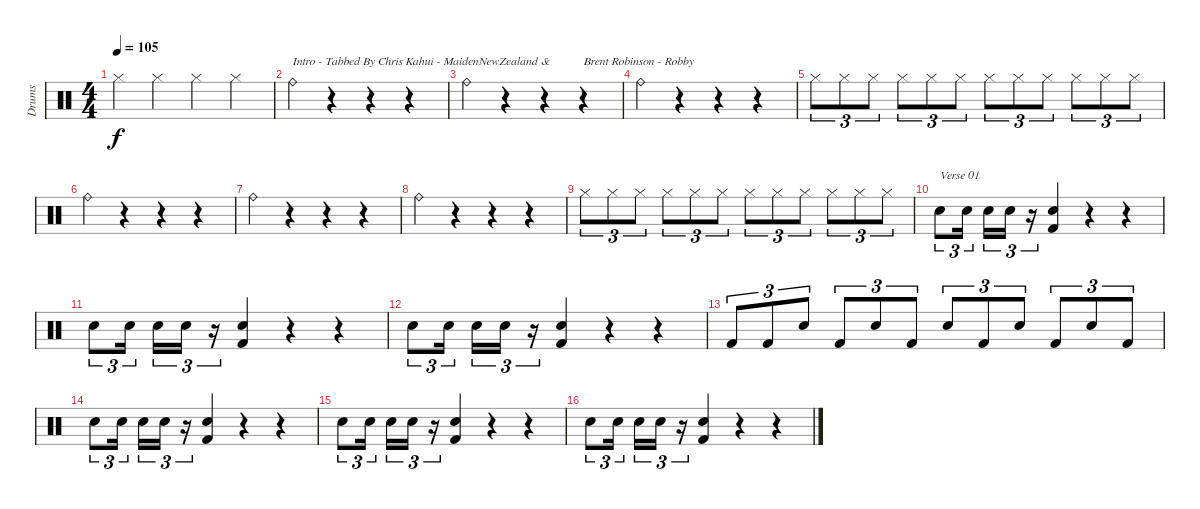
\track ("Drums" "Drums") {instrument percussion}
\staff {score}
\articulation defaults
\ts (4 4)
\tempo 105
\clef neutral
\ks c "Hi-Hat (closed)".4{dy f} "Hi-Hat (closed)".4 "Hi-Hat (closed)".4 "Hi-Hat (closed)".4
|
"Ride (bell)".4{txt "Intro - Tabbed By Chris Kahui - MaidenNewZealand &"} r.4 r.4 r.4 |
"Ride (bell)".4 r.4 r.4 r.4{txt "Brent Robinson - Robby"} |
"Ride (bell)".4 r.4 r.4 r.4 |
"Hi-Hat (closed)".8{tu (3 2)} "Hi-Hat (closed)".8{tu (3 2)} "Hi-Hat (closed)".8{tu (3 2)} "Hi-Hat (closed)".8{tu (3 2)} "Hi-Hat (closed)".8{tu (3 2)} "Hi-Hat (closed)".8{tu (3 2)} "Hi-Hat (closed)".8{tu (3 2)} "Hi-Hat (closed)".8{tu (3 2)} "Hi-Hat (closed)".8{tu (3 2)} "Hi-Hat (closed)".8{tu (3 2)} "Hi-Hat (closed)".8{tu (3 2)} "Hi-Hat (closed)".8{tu (3 2)} |
"Ride (bell)".4 r.4 r.4 r.4 |
"Ride (bell)".4 r.4 r.4 r.4 |
"Ride (bell)".4 r.4 r.4 r.4 |
"Hi-Hat (closed)".8{tu (3 2)} "Hi-Hat (closed)".8{tu (3 2)} "Hi-Hat (closed)".8{tu (3 2)} "Hi-Hat (closed)".8{tu (3 2)} "Hi-Hat (closed)".8{tu (3 2)} "Hi-Hat (closed)".8{tu (3 2)} "Hi-Hat (closed)".8{tu (3 2)} "Hi-Hat (closed)".8{tu (3 2)} "Hi-Hat (closed)".8{tu (3 2)} "Hi-Hat (closed)".8{tu (3 2)} "Hi-Hat (closed)".8{tu (3 2)} "Hi-Hat (closed)".8{tu (3 2)} |
"Snare (hit) 2".8{tu (3 2) txt "Verse 01"} "Snare (hit) 2".16{tu (3 2)} "Snare (hit) 2".16{tu (3 2)} "Snare (hit) 2".16{tu (3 2)} r.16{tu (3 2)} ("Kick (hit) 2" "Snare (hit) 2").4 r.4 r.4 |
"Snare (hit) 2".8{tu (3 2)} "Snare (hit) 2".16{tu (3 2)} "Snare (hit) 2".16{tu (3 2)} "Snare (hit) 2".16{tu (3 2)} r.16{tu (3 2)} ("Kick (hit) 2" "Snare (hit) 2").4 r.4 r.4 |
"Snare (hit) 2".8{tu (3 2)} "Snare (hit) 2".16{tu (3 2)} "Snare (hit) 2".16{tu (3 2)} "Snare (hit) 2".16{tu (3 2)} r.16{tu (3 2)} ("Kick (hit) 2" "Snare (hit) 2").4 r.4 r.4 |
"Kick (hit) 2".8{tu (3 2)} "Kick (hit) 2".8{tu (3 2)} "Snare (hit) 2".8{tu (3 2)} "Kick (hit) 2".8{tu (3 2)} "Snare (hit) 2".8{tu (3 2)} "Kick (hit) 2".8{tu (3 2)} "Snare (hit) 2".8{tu (3 2)} "Kick (hit) 2".8{tu (3 2)} "Snare (hit) 2".8{tu (3 2)} "Kick (hit) 2".8{tu (3 2)} "Snare (hit) 2".8{tu (3 2)} "Kick (hit) 2".8{tu (3 2)} |
"Snare (hit) 2".8{tu (3 2)} "Snare (hit) 2".16{tu (3 2)} "Snare (hit) 2".16{tu (3 2)} "Snare (hit) 2".16{tu (3 2)} r.16{tu (3 2)} ("Kick (hit) 2" "Snare (hit) 2").4 r.4 r.4 |
"Snare (hit) 2".8{tu (3 2)} "Snare (hit) 2".16{tu (3 2)} "Snare (hit) 2".16{tu (3 2)} "Snare (hit) 2".16{tu (3 2)} r.16{tu (3 2)} ("Kick (hit) 2" "Snare (hit) 2").4 r.4 r.4 |
"Snare (hit) 2".8{tu (3 2)} "Snare (hit) 2".16{tu (3 2)} "Snare (hit) 2".16{tu (3 2)} "Snare (hit) 2".16{tu (3 2)} r.16{tu (3 2)} ("Kick (hit) 2" "Snare (hit) 2").4 r.4 r.4
